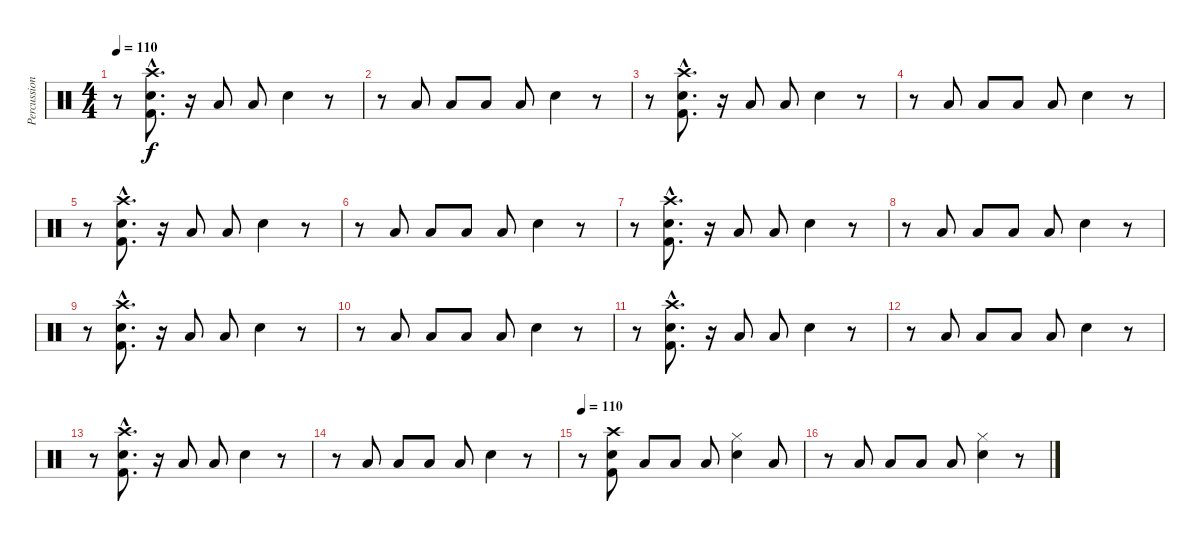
\track ("Percussioni" "Percussion") {instrument percussion}
\staff {score}
\articulation defaults
\ts (4 4)
\tempo 110
\clef neutral
\ks c
r.8{dy f} ("Crash high (hit)"{hac} "Electric Snare (hit)"{hac} "Kick (hit) 2"{hac}).8{d} r.16 "Low Tom (hit)".8 "Low Tom (hit)".8 "Electric Snare (hit)".4 r.8 |
r.8 "Low Tom (hit)".8 "Low Tom (hit)".8 "Low Tom (hit)".8 "Low Tom (hit)".8 "Electric Snare (hit)".4 r.8 |
r.8 ("Crash high (hit)"{hac} "Electric Snare (hit)"{hac} "Kick (hit) 2"{hac}).8{d} r.16 "Low Tom (hit)".8 "Low Tom (hit)".8 "Electric Snare (hit)".4 r.8 |
r.8 "Low Tom (hit)".8 "Low Tom (hit)".8 "Low Tom (hit)".8 "Low Tom (hit)".8 "Electric Snare (hit)".4 r.8 |
r.8 ("Crash high (hit)"{hac} "Electric Snare (hit)"{hac} "Kick (hit) 2"{hac}).8{d} r.16 "Low Tom (hit)".8 "Low Tom (hit)".8 "Electric Snare (hit)".4 r.8 |
r.8 "Low Tom (hit)".8 "Low Tom (hit)".8 "Low Tom (hit)".8 "Low Tom (hit)".8 "Electric Snare (hit)".4 r.8 |
r.8 ("Crash high (hit)"{hac} "Electric Snare (hit)"{hac} "Kick (hit) 2"{hac}).8{d} r.16 "Low Tom (hit)".8 "Low Tom (hit)".8 "Electric Snare (hit)".4 r.8 |
r.8 "Low Tom (hit)".8 "Low Tom (hit)".8 "Low Tom (hit)".8 "Low Tom (hit)".8 "Electric Snare (hit)".4 r.8 |
r.8 ("Crash high (hit)"{hac} "Electric Snare (hit)"{hac} "Kick (hit) 2"{hac}).8{d} r.16 "Low Tom (hit)".8 "Low Tom (hit)".8 "Electric Snare (hit)".4 r.8 |
r.8 "Low Tom (hit)".8 "Low Tom (hit)".8 "Low Tom (hit)".8 "Low Tom (hit)".8 "Electric Snare (hit)".4 r.8 |
r.8 ("Crash high (hit)"{hac} "Electric Snare (hit)"{hac} "Kick (hit) 2"{hac}).8{d} r.16 "Low Tom (hit)".8 "Low Tom (hit)".8 "Electric Snare (hit)".4 r.8 |
r.8 "Low Tom (hit)".8 "Low Tom (hit)".8 "Low Tom (hit)".8 "Low Tom (hit)".8 "Electric Snare (hit)".4 r.8 |
r.8 ("Crash high (hit)"{hac} "Electric Snare (hit)"{hac} "Kick (hit) 2"{hac}).8{d} r.16 "Low Tom (hit)".8 "Low Tom (hit)".8 "Electric Snare (hit)".4 r.8 |
r.8 "Low Tom (hit)".8 "Low Tom (hit)".8 "Low Tom (hit)".8 "Low Tom (hit)".8 "Electric Snare (hit)".4 r.8 |
\tempo 110
r.8 ("Crash high (hit)" "Electric Snare (hit)" "Kick (hit) 2").8 "Low Tom (hit)".8 "Low Tom (hit)".8 "Low Tom (hit)".8 ("Hi-Hat (closed)" "Electric Snare (hit)").4 "Low Tom (hit)".8 |
r.8 "Low Tom (hit)".8 "Low Tom (hit)".8 "Low Tom (hit)".8 "Low Tom (hit)".8 ("Hi-Hat (closed)" "Electric Snare (hit)").4 r.8
